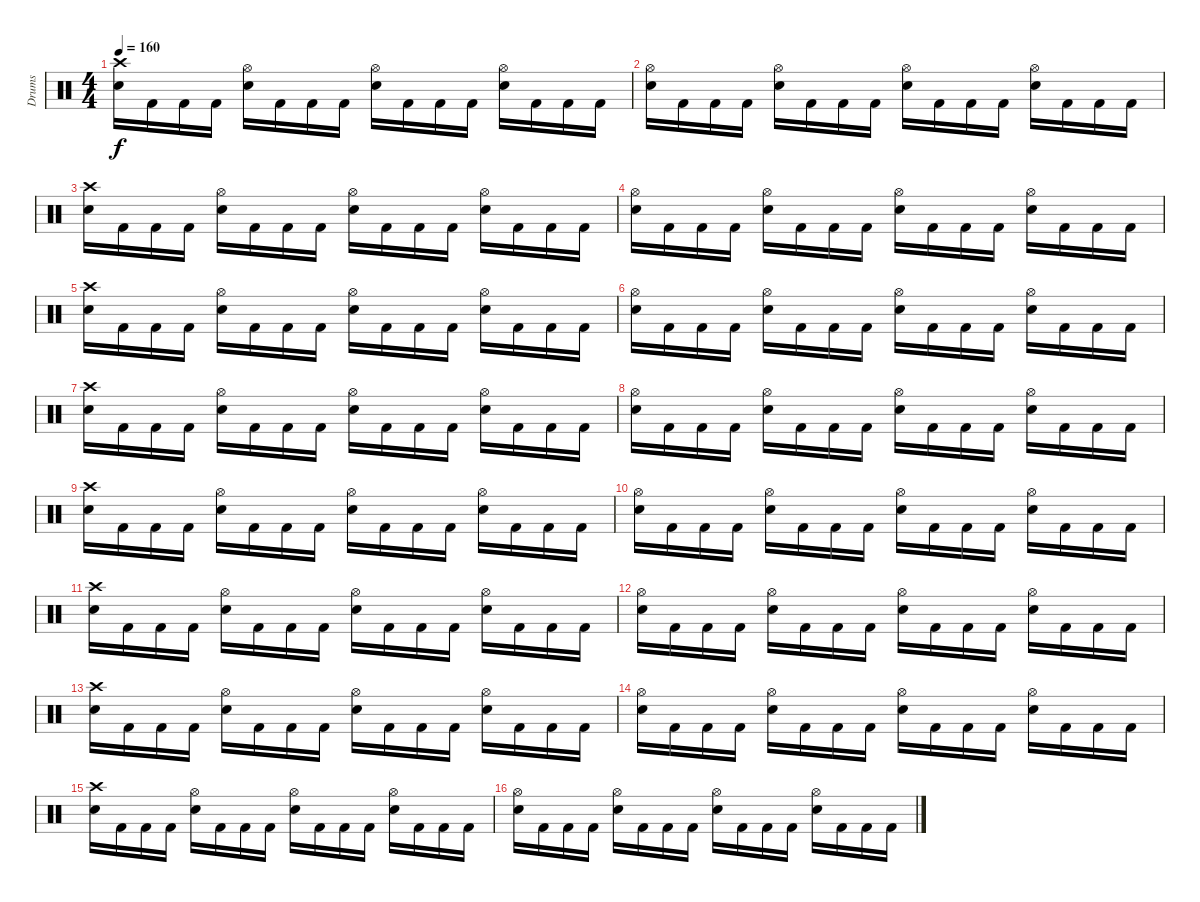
\track ("Drums" "Drums") {instrument percussion}
\staff {score}
\articulation defaults
\ts (4 4)
\tempo 160
\clef neutral
\ks c
("Crash high (hit)" "Electric Snare (hit)").16{dy f} "Kick (hit) 2".16 "Kick (hit) 2".16 "Kick (hit) 2".16 ("Electric Snare (hit)" "Hi-Hat (open)").16 "Kick (hit) 2".16 "Kick (hit) 2".16 "Kick (hit) 2".16 ("Hi-Hat (open)" "Electric Snare (hit)").16 "Kick (hit) 2".16 "Kick (hit) 2".16 "Kick (hit) 2".16 ("Electric Snare (hit)" "Hi-Hat (open)").16 "Kick (hit) 2".16 "Kick (hit) 2".16 "Kick (hit) 2".16 |
("Hi-Hat (open)" "Electric Snare (hit)").16 "Kick (hit) 2".16 "Kick (hit) 2".16 "Kick (hit) 2".16 ("Electric Snare (hit)" "Hi-Hat (open)").16 "Kick (hit) 2".16 "Kick (hit) 2".16 "Kick (hit) 2".16 ("Hi-Hat (open)" "Electric Snare (hit)").16 "Kick (hit) 2".16 "Kick (hit) 2".16 "Kick (hit) 2".16 ("Electric Snare (hit)" "Hi-Hat (open)").16 "Kick (hit) 2".16 "Kick (hit) 2".16 "Kick (hit) 2".16 |
("Crash high (hit)" "Electric Snare (hit)").16 "Kick (hit) 2".16 "Kick (hit) 2".16 "Kick (hit) 2".16 ("Electric Snare (hit)" "Hi-Hat (open)").16 "Kick (hit) 2".16 "Kick (hit) 2".16 "Kick (hit) 2".16 ("Hi-Hat (open)" "Electric Snare (hit)").16 "Kick (hit) 2".16 "Kick (hit) 2".16 "Kick (hit) 2".16 ("Electric Snare (hit)" "Hi-Hat (open)").16 "Kick (hit) 2".16 "Kick (hit) 2".16 "Kick (hit) 2".16 |
("Hi-Hat (open)" "Electric Snare (hit)").16 "Kick (hit) 2".16 "Kick (hit) 2".16 "Kick (hit) 2".16 ("Electric Snare (hit)" "Hi-Hat (open)").16 "Kick (hit) 2".16 "Kick (hit) 2".16 "Kick (hit) 2".16 ("Hi-Hat (open)" "Electric Snare (hit)").16 "Kick (hit) 2".16 "Kick (hit) 2".16 "Kick (hit) 2".16 ("Electric Snare (hit)" "Hi-Hat (open)").16 "Kick (hit) 2".16 "Kick (hit) 2".16 "Kick (hit) 2".16 |
("Crash high (hit)" "Electric Snare (hit)").16 "Kick (hit) 2".16 "Kick (hit) 2".16 "Kick (hit) 2".16 ("Electric Snare (hit)" "Hi-Hat (open)").16 "Kick (hit) 2".16 "Kick (hit) 2".16 "Kick (hit) 2".16 ("Hi-Hat (open)" "Electric Snare (hit)").16 "Kick (hit) 2".16 "Kick (hit) 2".16 "Kick (hit) 2".16 ("Electric Snare (hit)" "Hi-Hat (open)").16 "Kick (hit) 2".16 "Kick (hit) 2".16 "Kick (hit) 2".16 |
("Hi-Hat (open)" "Electric Snare (hit)").16 "Kick (hit) 2".16 "Kick (hit) 2".16 "Kick (hit) 2".16 ("Electric Snare (hit)" "Hi-Hat (open)").16 "Kick (hit) 2".16 "Kick (hit) 2".16 "Kick (hit) 2".16 ("Hi-Hat (open)" "Electric Snare (hit)").16 "Kick (hit) 2".16 "Kick (hit) 2".16 "Kick (hit) 2".16 ("Electric Snare (hit)" "Hi-Hat (open)").16 "Kick (hit) 2".16 "Kick (hit) 2".16 "Kick (hit) 2".16 |
("Crash high (hit)" "Electric Snare (hit)").16 "Kick (hit) 2".16 "Kick (hit) 2".16 "Kick (hit) 2".16 ("Electric Snare (hit)" "Hi-Hat (open)").16 "Kick (hit) 2".16 "Kick (hit) 2".16 "Kick (hit) 2".16 ("Hi-Hat (open)" "Electric Snare (hit)").16 "Kick (hit) 2".16 "Kick (hit) 2".16 "Kick (hit) 2".16 ("Electric Snare (hit)" "Hi-Hat (open)").16 "Kick (hit) 2".16 "Kick (hit) 2".16 "Kick (hit) 2".16 |
("Hi-Hat (open)" "Electric Snare (hit)").16 "Kick (hit) 2".16 "Kick (hit) 2".16 "Kick (hit) 2".16 ("Electric Snare (hit)" "Hi-Hat (open)").16 "Kick (hit) 2".16 "Kick (hit) 2".16 "Kick (hit) 2".16 ("Hi-Hat (open)" "Electric Snare (hit)").16 "Kick (hit) 2".16 "Kick (hit) 2".16 "Kick (hit) 2".16 ("Electric Snare (hit)" "Hi-Hat (open)").16 "Kick (hit) 2".16 "Kick (hit) 2".16 "Kick (hit) 2".16 |
("Crash high (hit)" "Electric Snare (hit)").16 "Kick (hit) 2".16 "Kick (hit) 2".16 "Kick (hit) 2".16 ("Electric Snare (hit)" "Hi-Hat (open)").16 "Kick (hit) 2".16 "Kick (hit) 2".16 "Kick (hit) 2".16 ("Hi-Hat (open)" "Electric Snare (hit)").16 "Kick (hit) 2".16 "Kick (hit) 2".16 "Kick (hit) 2".16 ("Electric Snare (hit)" "Hi-Hat (open)").16 "Kick (hit) 2".16 "Kick (hit) 2".16 "Kick (hit) 2".16 |
("Hi-Hat (open)" "Electric Snare (hit)").16 "Kick (hit) 2".16 "Kick (hit) 2".16 "Kick (hit) 2".16 ("Electric Snare (hit)" "Hi-Hat (open)").16 "Kick (hit) 2".16 "Kick (hit) 2".16 "Kick (hit) 2".16 ("Hi-Hat (open)" "Electric Snare (hit)").16 "Kick (hit) 2".16 "Kick (hit) 2".16 "Kick (hit) 2".16 ("Electric Snare (hit)" "Hi-Hat (open)").16 "Kick (hit) 2".16 "Kick (hit) 2".16 "Kick (hit) 2".16 |
("Crash high (hit)" "Electric Snare (hit)").16 "Kick (hit) 2".16 "Kick (hit) 2".16 "Kick (hit) 2".16 ("Electric Snare (hit)" "Hi-Hat (open)").16 "Kick (hit) 2".16 "Kick (hit) 2".16 "Kick (hit) 2".16 ("Hi-Hat (open)" "Electric Snare (hit)").16 "Kick (hit) 2".16 "Kick (hit) 2".16 "Kick (hit) 2".16 ("Electric Snare (hit)" "Hi-Hat (open)").16 "Kick (hit) 2".16 "Kick (hit) 2".16 "Kick (hit) 2".16 |
("Hi-Hat (open)" "Electric Snare (hit)").16 "Kick (hit) 2".16 "Kick (hit) 2".16 "Kick (hit) 2".16 ("Electric Snare (hit)" "Hi-Hat (open)").16 "Kick (hit) 2".16 "Kick (hit) 2".16 "Kick (hit) 2".16 ("Hi-Hat (open)" "Electric Snare (hit)").16 "Kick (hit) 2".16 "Kick (hit) 2".16 "Kick (hit) 2".16 ("Electric Snare (hit)" "Hi-Hat (open)").16 "Kick (hit) 2".16 "Kick (hit) 2".16 "Kick (hit) 2".16 |
("Crash high (hit)" "Electric Snare (hit)").16 "Kick (hit) 2".16 "Kick (hit) 2".16 "Kick (hit) 2".16 ("Electric Snare (hit)" "Hi-Hat (open)").16 "Kick (hit) 2".16 "Kick (hit) 2".16 "Kick (hit) 2".16 ("Hi-Hat (open)" "Electric Snare (hit)").16 "Kick (hit) 2".16 "Kick (hit) 2".16 "Kick (hit) 2".16 ("Electric Snare (hit)" "Hi-Hat (open)").16 "Kick (hit) 2".16 "Kick (hit) 2".16 "Kick (hit) 2".16 |
("Hi-Hat (open)" "Electric Snare (hit)").16 "Kick (hit) 2".16 "Kick (hit) 2".16 "Kick (hit) 2".16 ("Electric Snare (hit)" "Hi-Hat (open)").16 "Kick (hit) 2".16 "Kick (hit) 2".16 "Kick (hit) 2".16 ("Hi-Hat (open)" "Electric Snare (hit)").16 "Kick (hit) 2".16 "Kick (hit) 2".16 "Kick (hit) 2".16 ("Electric Snare (hit)" "Hi-Hat (open)").16 "Kick (hit) 2".16 "Kick (hit) 2".16 "Kick (hit) 2".16 |
("Crash high (hit)" "Electric Snare (hit)").16 "Kick (hit) 2".16 "Kick (hit) 2".16 "Kick (hit) 2".16 ("Electric Snare (hit)" "Hi-Hat (open)").16 "Kick (hit) 2".16 "Kick (hit) 2".16 "Kick (hit) 2".16 ("Hi-Hat (open)" "Electric Snare (hit)").16 "Kick (hit) 2".16 "Kick (hit) 2".16 "Kick (hit) 2".16 ("Electric Snare (hit)" "Hi-Hat (open)").16 "Kick (hit) 2".16 "Kick (hit) 2".16 "Kick (hit) 2".16 |
("Hi-Hat (open)" "Electric Snare (hit)").16 "Kick (hit) 2".16 "Kick (hit) 2".16 "Kick (hit) 2".16 ("Electric Snare (hit)" "Hi-Hat (open)").16 "Kick (hit) 2".16 "Kick (hit) 2".16 "Kick (hit) 2".16 ("Hi-Hat (open)" "Electric Snare (hit)").16 "Kick (hit) 2".16 "Kick (hit) 2".16 "Kick (hit) 2".16 ("Electric Snare (hit)" "Hi-Hat (open)").16 "Kick (hit) 2".16 "Kick (hit) 2".16 "Kick (hit) 2".16
